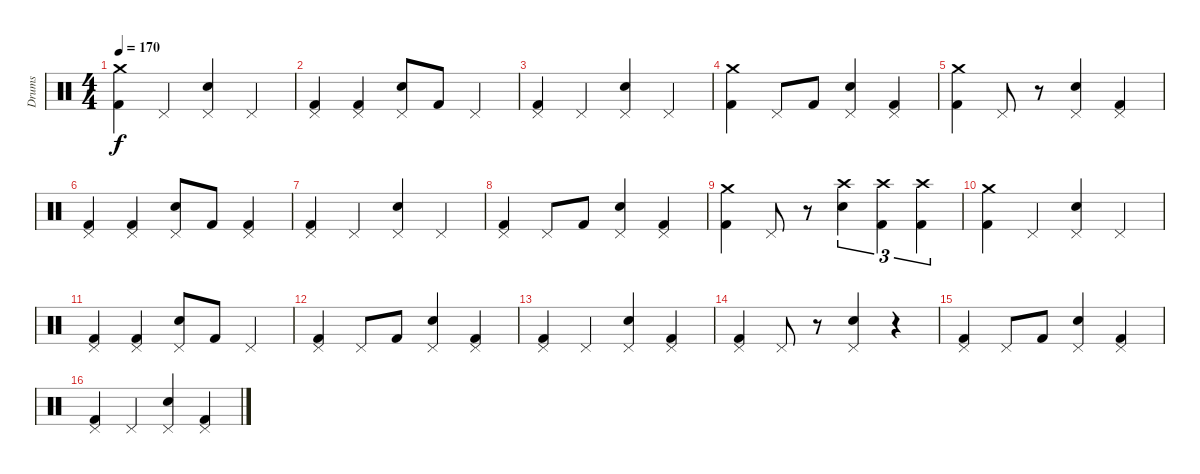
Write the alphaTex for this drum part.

\track ("Drums" "Drums") {instrument percussion}
\staff {score}
\articulation defaults
\ts (4 4)
\tempo 170
\clef neutral
\ks c
("Crash medium (hit)" "Kick (hit) 2").4{dy f} "Pedal Hi-Hat (hit)".4 ("Pedal Hi-Hat (hit)" "Snare (hit) 2").4 "Pedal Hi-Hat (hit)".4 |
("Pedal Hi-Hat (hit)" "Kick (hit) 2").4 ("Pedal Hi-Hat (hit)" "Kick (hit) 2").4 ("Pedal Hi-Hat (hit)" "Snare (hit) 2").8 "Kick (hit) 2".8 "Pedal Hi-Hat (hit)".4 |
("Pedal Hi-Hat (hit)" "Kick (hit) 2").4 "Pedal Hi-Hat (hit)".4 ("Pedal Hi-Hat (hit)" "Snare (hit) 2").4 "Pedal Hi-Hat (hit)".4 |
("Crash medium (hit)" "Kick (hit) 2").4 "Pedal Hi-Hat (hit)".8 "Kick (hit) 2".8 ("Pedal Hi-Hat (hit)" "Snare (hit) 2").4 ("Pedal Hi-Hat (hit)" "Kick (hit) 2").4 |
("Crash medium (hit)" "Kick (hit) 2").4 "Pedal Hi-Hat (hit)".8 r.8 ("Pedal Hi-Hat (hit)" "Snare (hit) 2").4 ("Pedal Hi-Hat (hit)" "Kick (hit) 2").4 |
("Pedal Hi-Hat (hit)" "Kick (hit) 2").4 ("Pedal Hi-Hat (hit)" "Kick (hit) 2").4 ("Pedal Hi-Hat (hit)" "Snare (hit) 2").8 "Kick (hit) 2".8 ("Pedal Hi-Hat (hit)" "Kick (hit) 2").4 |
("Pedal Hi-Hat (hit)" "Kick (hit) 2").4 "Pedal Hi-Hat (hit)".4 ("Pedal Hi-Hat (hit)" "Snare (hit) 2").4 "Pedal Hi-Hat (hit)".4 |
("Pedal Hi-Hat (hit)" "Kick (hit) 2").4 "Pedal Hi-Hat (hit)".8 "Kick (hit) 2".8 ("Pedal Hi-Hat (hit)" "Snare (hit) 2").4 ("Pedal Hi-Hat (hit)" "Kick (hit) 2").4 |
("Crash medium (hit)" "Kick (hit) 2").4 "Pedal Hi-Hat (hit)".8 r.8 ("Crash high (hit)" "Snare (hit) 2").4{tu (3 2)} ("Crash high (hit)" "Kick (hit) 2").4{tu (3 2)} ("Crash high (hit)" "Kick (hit) 2").4{tu (3 2)} |
("Crash medium (hit)" "Kick (hit) 2").4 "Pedal Hi-Hat (hit)".4 ("Pedal Hi-Hat (hit)" "Snare (hit) 2").4 "Pedal Hi-Hat (hit)".4 |
("Pedal Hi-Hat (hit)" "Kick (hit) 2").4 ("Pedal Hi-Hat (hit)" "Kick (hit) 2").4 ("Pedal Hi-Hat (hit)" "Snare (hit) 2").8 "Kick (hit) 2".8 "Pedal Hi-Hat (hit)".4 |
("Pedal Hi-Hat (hit)" "Kick (hit) 2").4 "Pedal Hi-Hat (hit)".8 "Kick (hit) 2".8 ("Pedal Hi-Hat (hit)" "Snare (hit) 2").4 ("Pedal Hi-Hat (hit)" "Kick (hit) 2").4 |
("Pedal Hi-Hat (hit)" "Kick (hit) 2").4 "Pedal Hi-Hat (hit)".4 ("Pedal Hi-Hat (hit)" "Snare (hit) 2").4 ("Pedal Hi-Hat (hit)" "Kick (hit) 2").4 |
("Pedal Hi-Hat (hit)" "Kick (hit) 2").4 "Pedal Hi-Hat (hit)".8 r.8 ("Pedal Hi-Hat (hit)" "Snare (hit) 2").4 r.4 |
("Pedal Hi-Hat (hit)" "Kick (hit) 2").4 "Pedal Hi-Hat (hit)".8 "Kick (hit) 2".8 ("Pedal Hi-Hat (hit)" "Snare (hit) 2").4 ("Pedal Hi-Hat (hit)" "Kick (hit) 2").4 |
("Pedal Hi-Hat (hit)" "Kick (hit) 2").4 "Pedal Hi-Hat (hit)".4 ("Pedal Hi-Hat (hit)" "Snare (hit) 2").4 ("Pedal Hi-Hat (hit)" "Kick (hit) 2").4
